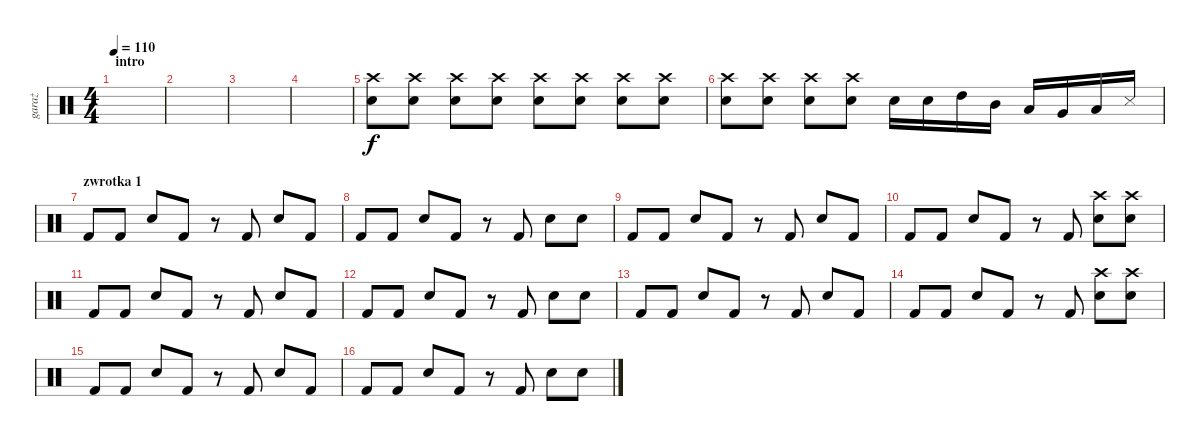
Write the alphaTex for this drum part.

\track ("garaż" "garaż") {instrument percussion}
\staff {score}
\articulation defaults
\ts (4 4)
\section ("" "intro")
\tempo 110
\clef neutral
\ks c
|
|
|
|
("Crash high (hit)" "Snare (hit) 2").8 ("Crash high (hit)" "Snare (hit) 2").8 ("Crash high (hit)" "Snare (hit) 2").8 ("Crash high (hit)" "Snare (hit) 2").8 ("Crash high (hit)" "Snare (hit) 2").8 ("Crash high (hit)" "Snare (hit) 2").8 ("Crash high (hit)" "Snare (hit) 2").8 ("Crash high (hit)" "Snare (hit) 2").8 |
("Crash high (hit)" "Snare (hit) 2").8 ("Crash high (hit)" "Snare (hit) 2").8 ("Crash high (hit)" "Snare (hit) 2").8 ("Crash high (hit)" "Snare (hit) 2").8 "Snare (hit) 2".16 "Snare (hit) 2".16 "High Tom (hit)".16 "Mid Tom (hit)".16 "Low Tom (hit)".16 "Very Low Tom (hit)".16 "Low Floor Tom (hit)".16 "Snare (side stick) 3".16 |
\section ("" "zwrotka 1")
"Kick (hit) 2".8 "Kick (hit) 2".8 "Snare (hit) 2".8 "Kick (hit) 2".8 r.8 "Kick (hit) 2".8 "Snare (hit) 2".8 "Kick (hit) 2".8 |
"Kick (hit) 2".8 "Kick (hit) 2".8 "Snare (hit) 2".8 "Kick (hit) 2".8 r.8 "Kick (hit) 2".8 "Snare (hit) 2".8 "Snare (hit) 2".8 |
"Kick (hit) 2".8 "Kick (hit) 2".8 "Snare (hit) 2".8 "Kick (hit) 2".8 r.8 "Kick (hit) 2".8 "Snare (hit) 2".8 "Kick (hit) 2".8 |
"Kick (hit) 2".8 "Kick (hit) 2".8 "Snare (hit) 2".8 "Kick (hit) 2".8 r.8 "Kick (hit) 2".8 ("Crash high (hit)" "Snare (hit) 2").8 ("Crash high (hit)" "Snare (hit) 2").8 |
"Kick (hit) 2".8 "Kick (hit) 2".8 "Snare (hit) 2".8 "Kick (hit) 2".8 r.8 "Kick (hit) 2".8 "Snare (hit) 2".8 "Kick (hit) 2".8 |
"Kick (hit) 2".8 "Kick (hit) 2".8 "Snare (hit) 2".8 "Kick (hit) 2".8 r.8 "Kick (hit) 2".8 "Snare (hit) 2".8 "Snare (hit) 2".8 |
"Kick (hit) 2".8 "Kick (hit) 2".8 "Snare (hit) 2".8 "Kick (hit) 2".8 r.8 "Kick (hit) 2".8 "Snare (hit) 2".8 "Kick (hit) 2".8 |
"Kick (hit) 2".8 "Kick (hit) 2".8 "Snare (hit) 2".8 "Kick (hit) 2".8 r.8 "Kick (hit) 2".8 ("Crash high (hit)" "Snare (hit) 2").8 ("Crash high (hit)" "Snare (hit) 2").8 |
"Kick (hit) 2".8 "Kick (hit) 2".8 "Snare (hit) 2".8 "Kick (hit) 2".8 r.8 "Kick (hit) 2".8 "Snare (hit) 2".8 "Kick (hit) 2".8 |
"Kick (hit) 2".8 "Kick (hit) 2".8 "Snare (hit) 2".8 "Kick (hit) 2".8 r.8 "Kick (hit) 2".8 "Snare (hit) 2".8 "Snare (hit) 2".8
